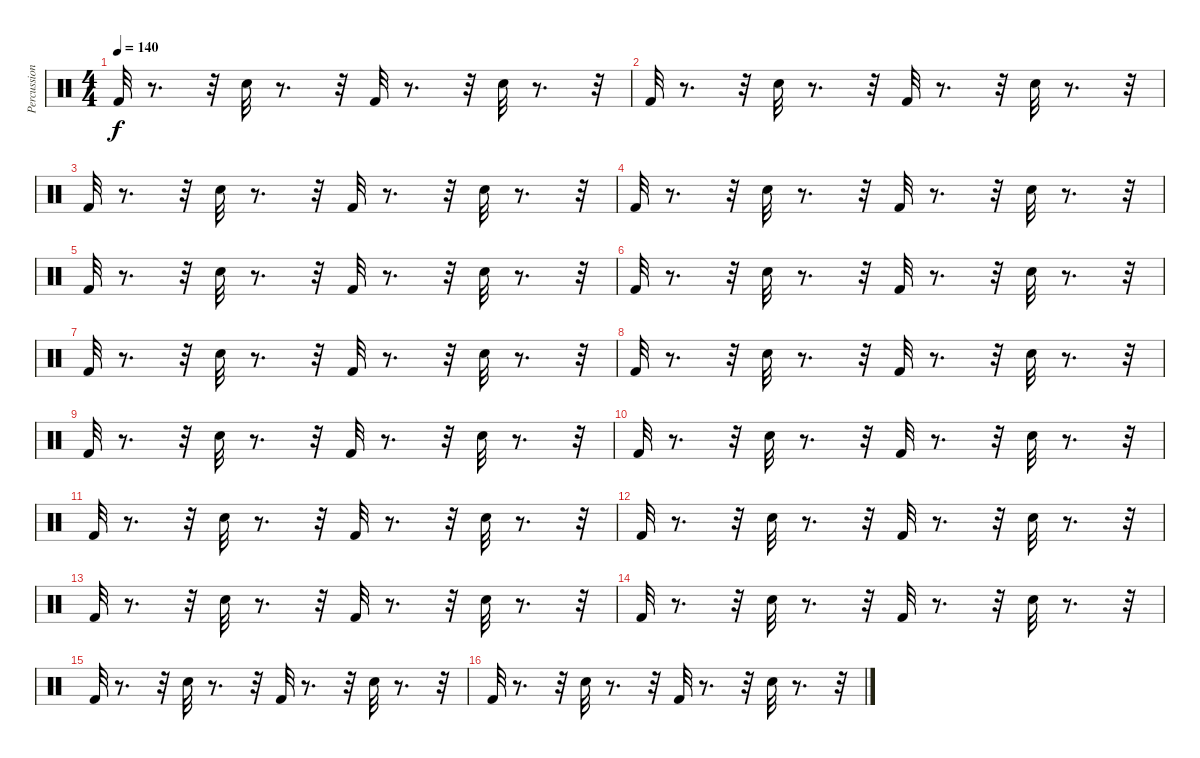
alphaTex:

\track ("Percussion 2" "Percussion") {instrument percussion}
\staff {score}
\articulation defaults
\ts (4 4)
\tempo 140
\clef neutral
\ks c "Kick (hit) 2".32{dy f}
r.8{d} r.32 "Snare (hit) 2".32 r.8{d} r.32 "Kick (hit) 2".32 r.8{d} r.32 "Snare (hit) 2".32 r.8{d} r.32 |
"Kick (hit) 2".32 r.8{d} r.32 "Snare (hit) 2".32 r.8{d} r.32 "Kick (hit) 2".32 r.8{d} r.32 "Snare (hit) 2".32 r.8{d} r.32 |
"Kick (hit) 2".32 r.8{d} r.32 "Snare (hit) 2".32 r.8{d} r.32 "Kick (hit) 2".32 r.8{d} r.32 "Snare (hit) 2".32 r.8{d} r.32 |
"Kick (hit) 2".32 r.8{d} r.32 "Snare (hit) 2".32 r.8{d} r.32 "Kick (hit) 2".32 r.8{d} r.32 "Snare (hit) 2".32 r.8{d} r.32 |
"Kick (hit) 2".32 r.8{d} r.32 "Snare (hit) 2".32 r.8{d} r.32 "Kick (hit) 2".32 r.8{d} r.32 "Snare (hit) 2".32 r.8{d} r.32 |
"Kick (hit) 2".32 r.8{d} r.32 "Snare (hit) 2".32 r.8{d} r.32 "Kick (hit) 2".32 r.8{d} r.32 "Snare (hit) 2".32 r.8{d} r.32 |
"Kick (hit) 2".32 r.8{d} r.32 "Snare (hit) 2".32 r.8{d} r.32 "Kick (hit) 2".32 r.8{d} r.32 "Snare (hit) 2".32 r.8{d} r.32 |
"Kick (hit) 2".32 r.8{d} r.32 "Snare (hit) 2".32 r.8{d} r.32 "Kick (hit) 2".32 r.8{d} r.32 "Snare (hit) 2".32 r.8{d} r.32 |
"Kick (hit) 2".32 r.8{d} r.32 "Snare (hit) 2".32 r.8{d} r.32 "Kick (hit) 2".32 r.8{d} r.32 "Snare (hit) 2".32 r.8{d} r.32 |
"Kick (hit) 2".32 r.8{d} r.32 "Snare (hit) 2".32 r.8{d} r.32 "Kick (hit) 2".32 r.8{d} r.32 "Snare (hit) 2".32 r.8{d} r.32 |
"Kick (hit) 2".32 r.8{d} r.32 "Snare (hit) 2".32 r.8{d} r.32 "Kick (hit) 2".32 r.8{d} r.32 "Snare (hit) 2".32 r.8{d} r.32 |
"Kick (hit) 2".32 r.8{d} r.32 "Snare (hit) 2".32 r.8{d} r.32 "Kick (hit) 2".32 r.8{d} r.32 "Snare (hit) 2".32 r.8{d} r.32 |
"Kick (hit) 2".32 r.8{d} r.32 "Snare (hit) 2".32 r.8{d} r.32 "Kick (hit) 2".32 r.8{d} r.32 "Snare (hit) 2".32 r.8{d} r.32 |
"Kick (hit) 2".32 r.8{d} r.32 "Snare (hit) 2".32 r.8{d} r.32 "Kick (hit) 2".32 r.8{d} r.32 "Snare (hit) 2".32 r.8{d} r.32 |
"Kick (hit) 2".32 r.8{d} r.32 "Snare (hit) 2".32 r.8{d} r.32 "Kick (hit) 2".32 r.8{d} r.32 "Snare (hit) 2".32 r.8{d} r.32 |
"Kick (hit) 2".32 r.8{d} r.32 "Snare (hit) 2".32 r.8{d} r.32 "Kick (hit) 2".32 r.8{d} r.32 "Snare (hit) 2".32 r.8{d} r.32
